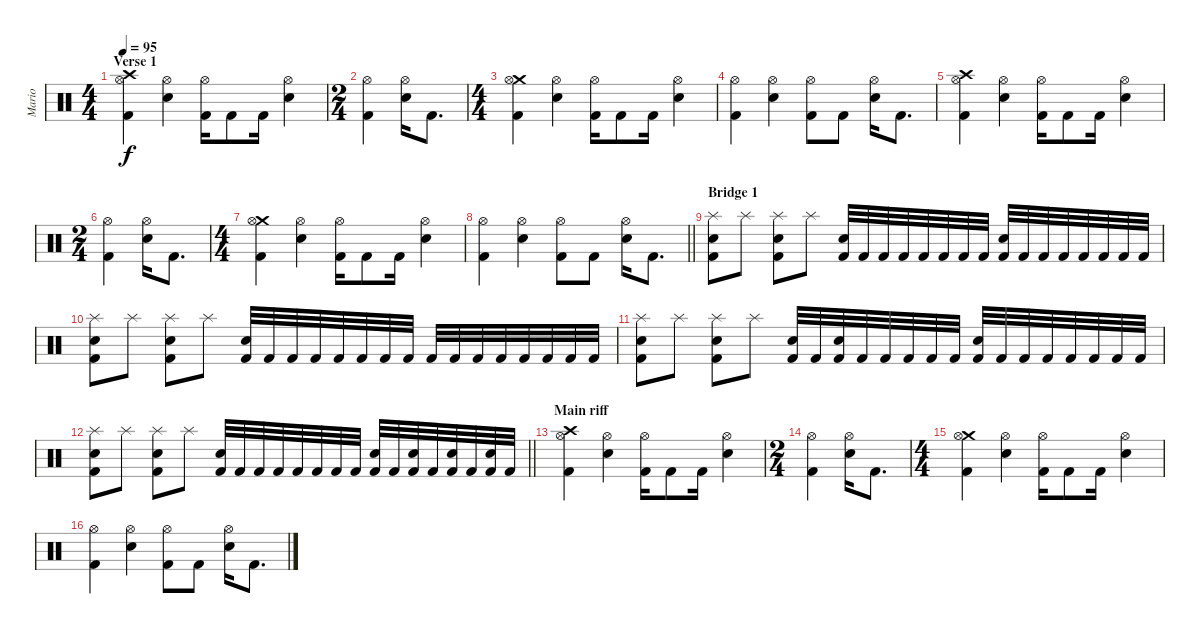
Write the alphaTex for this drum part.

\track ("Mario" "Mario") {instrument percussion}
\staff {score}
\articulation defaults
\ts (4 4)
\section ("" "Verse 1")
\tempo 95
\clef neutral
\ks c
("Crash high (hit)" "Hi-Hat (open)" "Kick (hit) 2").4{dy f} ("Hi-Hat (open)" "Electric Snare (hit)").4 ("Hi-Hat (open)" "Kick (hit) 2").16 "Kick (hit) 2".8 "Kick (hit) 2".16 ("Hi-Hat (open)" "Electric Snare (hit)").4 |
\ts (2 4)
("Hi-Hat (open)" "Kick (hit) 2").4 ("Hi-Hat (open)" "Electric Snare (hit)").16 "Kick (hit) 2".8{d} |
\ts (4 4)
("Crash medium (hit)" "Hi-Hat (open)" "Kick (hit) 2").4 ("Hi-Hat (open)" "Electric Snare (hit)").4 ("Hi-Hat (open)" "Kick (hit) 2").16 "Kick (hit) 2".8 "Kick (hit) 2".16 ("Hi-Hat (open)" "Electric Snare (hit)").4 |
("Hi-Hat (open)" "Kick (hit) 2").4 ("Hi-Hat (open)" "Electric Snare (hit)").4 ("Hi-Hat (open)" "Kick (hit) 2").8 "Kick (hit) 2".8 ("Hi-Hat (open)" "Electric Snare (hit)").16 "Kick (hit) 2".8{d} |
("Crash high (hit)" "Hi-Hat (open)" "Kick (hit) 2").4 ("Hi-Hat (open)" "Electric Snare (hit)").4 ("Hi-Hat (open)" "Kick (hit) 2").16 "Kick (hit) 2".8 "Kick (hit) 2".16 ("Hi-Hat (open)" "Electric Snare (hit)").4 |
\ts (2 4)
("Hi-Hat (open)" "Kick (hit) 2").4 ("Hi-Hat (open)" "Electric Snare (hit)").16 "Kick (hit) 2".8{d} |
\ts (4 4)
("Crash medium (hit)" "Hi-Hat (open)" "Kick (hit) 2").4 ("Hi-Hat (open)" "Electric Snare (hit)").4 ("Hi-Hat (open)" "Kick (hit) 2").16 "Kick (hit) 2".8 "Kick (hit) 2".16 ("Hi-Hat (open)" "Electric Snare (hit)").4 |
\barLineRight lightlight
("Hi-Hat (open)" "Kick (hit) 2").4 ("Hi-Hat (open)" "Electric Snare (hit)").4 ("Hi-Hat (open)" "Kick (hit) 2").8 "Kick (hit) 2".8 ("Hi-Hat (open)" "Electric Snare (hit)").16 "Kick (hit) 2".8{d} |
\section ("" "Bridge 1")
("Splash (hit)" "Electric Snare (hit)" "Kick (hit) 2").8 "Splash (hit)".8 ("Splash (hit)" "Electric Snare (hit)" "Kick (hit) 2").8 "Splash (hit)".8 ("Electric Snare (hit)" "Kick (hit) 2").32 "Kick (hit) 2".32 "Kick (hit) 2".32 "Kick (hit) 2".32 "Kick (hit) 2".32 "Kick (hit) 2".32 "Kick (hit) 2".32 "Kick (hit) 2".32 ("Electric Snare (hit)" "Kick (hit) 2").32 "Kick (hit) 2".32 "Kick (hit) 2".32 "Kick (hit) 2".32 "Kick (hit) 2".32 "Kick (hit) 2".32 "Kick (hit) 2".32 "Kick (hit) 2".32 |
("Splash (hit)" "Electric Snare (hit)" "Kick (hit) 2").8 "Splash (hit)".8 ("Splash (hit)" "Electric Snare (hit)" "Kick (hit) 2").8 "Splash (hit)".8 ("Electric Snare (hit)" "Kick (hit) 2").32 "Kick (hit) 2".32 "Kick (hit) 2".32 "Kick (hit) 2".32 "Kick (hit) 2".32 "Kick (hit) 2".32 "Kick (hit) 2".32 "Kick (hit) 2".32 "Kick (hit) 2".32 "Kick (hit) 2".32 "Kick (hit) 2".32 "Kick (hit) 2".32 "Kick (hit) 2".32 "Kick (hit) 2".32 "Kick (hit) 2".32 "Kick (hit) 2".32 |
("Splash (hit)" "Electric Snare (hit)" "Kick (hit) 2").8 "Splash (hit)".8 ("Splash (hit)" "Electric Snare (hit)" "Kick (hit) 2").8 "Splash (hit)".8 ("Electric Snare (hit)" "Kick (hit) 2").32 "Kick (hit) 2".32 ("Electric Snare (hit)" "Kick (hit) 2").32 "Kick (hit) 2".32 "Kick (hit) 2".32 "Kick (hit) 2".32 "Kick (hit) 2".32 "Kick (hit) 2".32 ("Electric Snare (hit)" "Kick (hit) 2").32 "Kick (hit) 2".32 "Kick (hit) 2".32 "Kick (hit) 2".32 "Kick (hit) 2".32 "Kick (hit) 2".32 "Kick (hit) 2".32 "Kick (hit) 2".32 |
\barLineRight lightlight
("Splash (hit)" "Electric Snare (hit)" "Kick (hit) 2").8 "Splash (hit)".8 ("Splash (hit)" "Electric Snare (hit)" "Kick (hit) 2").8 "Splash (hit)".8 ("Electric Snare (hit)" "Kick (hit) 2").32 "Kick (hit) 2".32 "Kick (hit) 2".32 "Kick (hit) 2".32 "Kick (hit) 2".32 "Kick (hit) 2".32 "Kick (hit) 2".32 "Kick (hit) 2".32 ("Electric Snare (hit)" "Kick (hit) 2").32 "Kick (hit) 2".32 ("Electric Snare (hit)" "Kick (hit) 2").32 "Kick (hit) 2".32 ("Electric Snare (hit)" "Kick (hit) 2").32 "Kick (hit) 2".32 ("Electric Snare (hit)" "Kick (hit) 2").32 "Kick (hit) 2".32 |
\section ("" "Main riff")
("Crash high (hit)" "Hi-Hat (open)" "Kick (hit) 2").4 ("Hi-Hat (open)" "Electric Snare (hit)").4 ("Hi-Hat (open)" "Kick (hit) 2").16 "Kick (hit) 2".8 "Kick (hit) 2".16 ("Hi-Hat (open)" "Electric Snare (hit)").4 |
\ts (2 4)
("Hi-Hat (open)" "Kick (hit) 2").4 ("Hi-Hat (open)" "Electric Snare (hit)").16 "Kick (hit) 2".8{d} |
\ts (4 4)
("Crash medium (hit)" "Hi-Hat (open)" "Kick (hit) 2").4 ("Hi-Hat (open)" "Electric Snare (hit)").4 ("Hi-Hat (open)" "Kick (hit) 2").16 "Kick (hit) 2".8 "Kick (hit) 2".16 ("Hi-Hat (open)" "Electric Snare (hit)").4 |
("Hi-Hat (open)" "Kick (hit) 2").4 ("Hi-Hat (open)" "Electric Snare (hit)").4 ("Hi-Hat (open)" "Kick (hit) 2").8 "Kick (hit) 2".8 ("Hi-Hat (open)" "Electric Snare (hit)").16 "Kick (hit) 2".8{d}
